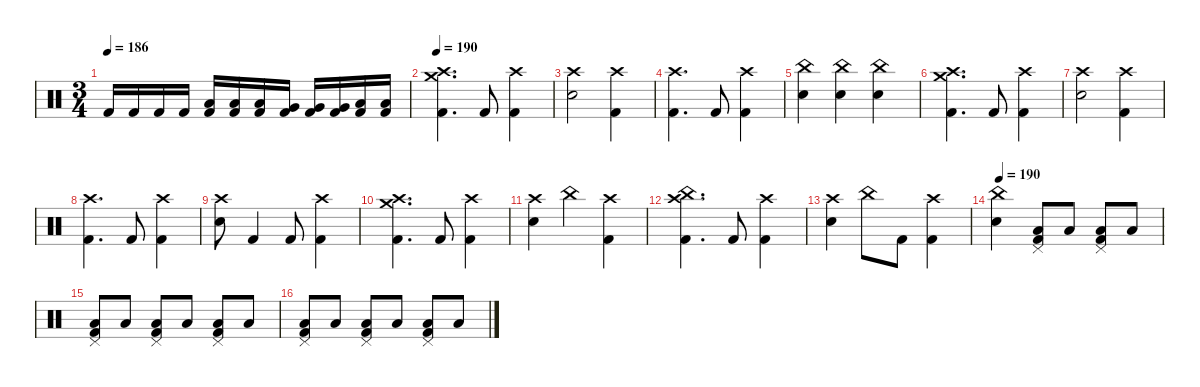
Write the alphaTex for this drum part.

\defaultSystemsLayout 4
\hideDynamics
\bracketExtendMode nobrackets
\singleTrackTrackNamePolicy hidden
\multiTrackTrackNamePolicy hidden
\firstSystemTrackNameMode fullname
\otherSystemsTrackNameOrientation horizontal
\track ("Drums" "drm.") {defaultSystemsLayout 4 instrument percussion}
\staff {score}
\articulation defaults
\ts (3 4)
\tempo 186
\clef neutral
\ks c "Kick (hit) 2".16{dy f beam Up} "Kick (hit) 2".16{beam Up} "Kick (hit) 2".16{beam Up} "Kick (hit) 2".16{beam Up}
("Low Tom (hit)" "Kick (hit) 2").16{beam Up} ("Low Tom (hit)" "Kick (hit) 2").16{beam Up} ("Low Tom (hit)" "Kick (hit) 2").16{beam Up} ("Very Low Tom (hit)" "Kick (hit) 2").16{beam Up} ("Very Low Tom (hit)" "Kick (hit) 2").16{beam Up} ("Very Low Tom (hit)" "Kick (hit) 2").16{beam Up} ("Low Floor Tom (hit)" "Kick (hit) 2").16{beam Up} ("Low Floor Tom (hit)" "Kick (hit) 2").16{beam Up} |
\tempo 190
("Crash medium (hit)" "Crash high (hit)" "Kick (hit) 2").4{d beam Down} "Kick (hit) 2".8{beam Up} ("Crash high (hit)" "Kick (hit) 2").4{dy mf beam Down} |
("Crash high (hit)" "Snare (hit) 2").2{dy f beam Down} ("Crash high (hit)" "Kick (hit) 2").4{dy mf beam Down} |
("Crash high (hit)" "Kick (hit) 2").4{d dy f beam Down} "Kick (hit) 2".8{beam Up} ("Crash high (hit)" "Kick (hit) 2").4{dy mf beam Down} |
("China (hit)" "Snare (hit) 2").4{dy f beam Down} ("China (hit)" "Snare (hit) 2").4{beam Down} ("China (hit)" "Snare (hit) 2").4{beam Down} |
("Crash medium (hit)" "Crash high (hit)" "Kick (hit) 2").4{d beam Down} "Kick (hit) 2".8{beam Up} ("Crash high (hit)" "Kick (hit) 2").4{dy mf beam Down} |
("Crash high (hit)" "Snare (hit) 2").2{dy f beam Down} ("Crash high (hit)" "Kick (hit) 2").4{dy mf beam Down} |
("Crash high (hit)" "Kick (hit) 2").4{d dy f beam Down} "Kick (hit) 2".8{beam Up} ("Crash high (hit)" "Kick (hit) 2").4{dy mf beam Down} |
("Crash high (hit)" "Snare (hit) 2").8{dy f beam Down} "Kick (hit) 2".4{beam Up} "Kick (hit) 2".8{beam Up} ("Crash high (hit)" "Kick (hit) 2").4{dy mf beam Down} |
("Crash medium (hit)" "Crash high (hit)" "Kick (hit) 2").4{d dy f beam Down} "Kick (hit) 2".8{beam Up} ("Crash high (hit)" "Kick (hit) 2").4{dy mf beam Down} |
("Crash high (hit)" "Snare (hit) 2").4{dy f beam Down} "China (hit)".4{beam Down} ("Crash high (hit)" "Kick (hit) 2").4{dy mf beam Down} |
("China (hit)" "Crash high (hit)" "Kick (hit) 2").4{d dy f beam Down} "Kick (hit) 2".8{beam Up} ("Crash high (hit)" "Kick (hit) 2").4{dy mf beam Down} |
("Crash high (hit)" "Snare (hit) 2").4{dy f beam Down} "China (hit)".8{beam Down} "Kick (hit) 2".8{beam Down} ("Crash high (hit)" "Kick (hit) 2").4{dy mf beam Down} |
\tempo 190
("China (hit)" "Snare (hit) 2").4{dy f beam Down} ("Pedal Hi-Hat (hit)" "Low Floor Tom (hit)" "Kick (hit) 2").8{beam Up} "Low Floor Tom (hit)".8{dy p beam Up} ("Pedal Hi-Hat (hit)" "Low Floor Tom (hit)" "Kick (hit) 2").8{dy f beam Up} "Low Floor Tom (hit)".8{dy p beam Up} |
("Pedal Hi-Hat (hit)" "Low Floor Tom (hit)" "Kick (hit) 2").8{dy f beam Up} "Low Floor Tom (hit)".8{dy mp beam Up} ("Pedal Hi-Hat (hit)" "Low Floor Tom (hit)" "Kick (hit) 2").8{dy f beam Up} "Low Floor Tom (hit)".8{dy mp beam Up} ("Pedal Hi-Hat (hit)" "Low Floor Tom (hit)" "Kick (hit) 2").8{dy f beam Up} "Low Floor Tom (hit)".8{dy mp beam Up} |
("Pedal Hi-Hat (hit)" "Low Floor Tom (hit)" "Kick (hit) 2").8{dy f beam Up} "Low Floor Tom (hit)".8{dy mf beam Up} ("Pedal Hi-Hat (hit)" "Low Floor Tom (hit)" "Kick (hit) 2").8{dy f beam Up} "Low Floor Tom (hit)".8{dy mf beam Up} ("Pedal Hi-Hat (hit)" "Low Floor Tom (hit)" "Kick (hit) 2").8{dy f beam Up} "Low Floor Tom (hit)".8{beam Up}
